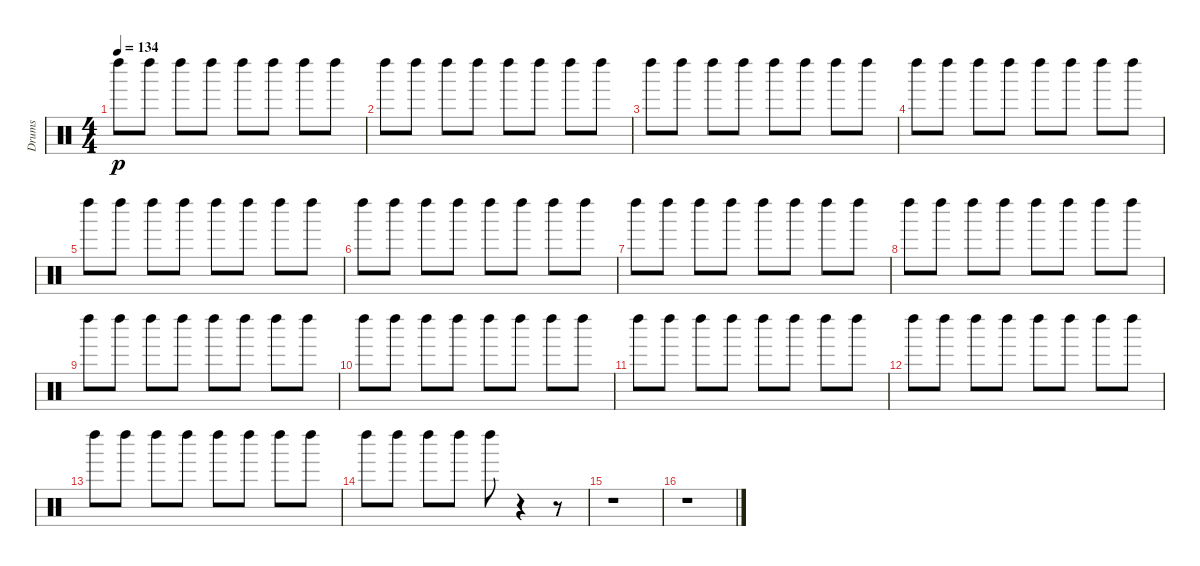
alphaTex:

\track ("Drums" "Drums") {instrument percussion}
\staff {score}
\articulation defaults
\ts (4 4)
\tempo 134
\clef neutral
\ks c "Left Maraca (hit)".8{dy p} "Left Maraca (hit)".8 "Left Maraca (hit)".8 "Left Maraca (hit)".8 "Left Maraca (hit)".8 "Left Maraca (hit)".8 "Left Maraca (hit)".8 "Left Maraca (hit)".8
|
"Left Maraca (hit)".8 "Left Maraca (hit)".8 "Left Maraca (hit)".8 "Left Maraca (hit)".8 "Left Maraca (hit)".8 "Left Maraca (hit)".8 "Left Maraca (hit)".8 "Left Maraca (hit)".8 |
"Left Maraca (hit)".8 "Left Maraca (hit)".8 "Left Maraca (hit)".8 "Left Maraca (hit)".8 "Left Maraca (hit)".8 "Left Maraca (hit)".8 "Left Maraca (hit)".8 "Left Maraca (hit)".8 |
"Left Maraca (hit)".8 "Left Maraca (hit)".8 "Left Maraca (hit)".8 "Left Maraca (hit)".8 "Left Maraca (hit)".8 "Left Maraca (hit)".8 "Left Maraca (hit)".8 "Left Maraca (hit)".8 |
"Left Maraca (hit)".8 "Left Maraca (hit)".8 "Left Maraca (hit)".8 "Left Maraca (hit)".8 "Left Maraca (hit)".8 "Left Maraca (hit)".8 "Left Maraca (hit)".8 "Left Maraca (hit)".8 |
"Left Maraca (hit)".8 "Left Maraca (hit)".8 "Left Maraca (hit)".8 "Left Maraca (hit)".8 "Left Maraca (hit)".8 "Left Maraca (hit)".8 "Left Maraca (hit)".8 "Left Maraca (hit)".8 |
"Left Maraca (hit)".8 "Left Maraca (hit)".8 "Left Maraca (hit)".8 "Left Maraca (hit)".8 "Left Maraca (hit)".8 "Left Maraca (hit)".8 "Left Maraca (hit)".8 "Left Maraca (hit)".8 |
"Left Maraca (hit)".8 "Left Maraca (hit)".8 "Left Maraca (hit)".8 "Left Maraca (hit)".8 "Left Maraca (hit)".8 "Left Maraca (hit)".8 "Left Maraca (hit)".8 "Left Maraca (hit)".8 |
"Left Maraca (hit)".8 "Left Maraca (hit)".8 "Left Maraca (hit)".8 "Left Maraca (hit)".8 "Left Maraca (hit)".8 "Left Maraca (hit)".8 "Left Maraca (hit)".8 "Left Maraca (hit)".8 |
"Left Maraca (hit)".8 "Left Maraca (hit)".8 "Left Maraca (hit)".8 "Left Maraca (hit)".8 "Left Maraca (hit)".8 "Left Maraca (hit)".8 "Left Maraca (hit)".8 "Left Maraca (hit)".8 |
"Left Maraca (hit)".8 "Left Maraca (hit)".8 "Left Maraca (hit)".8 "Left Maraca (hit)".8 "Left Maraca (hit)".8 "Left Maraca (hit)".8 "Left Maraca (hit)".8 "Left Maraca (hit)".8 |
"Left Maraca (hit)".8 "Left Maraca (hit)".8 "Left Maraca (hit)".8 "Left Maraca (hit)".8 "Left Maraca (hit)".8 "Left Maraca (hit)".8 "Left Maraca (hit)".8 "Left Maraca (hit)".8 |
"Left Maraca (hit)".8 "Left Maraca (hit)".8 "Left Maraca (hit)".8 "Left Maraca (hit)".8 "Left Maraca (hit)".8 "Left Maraca (hit)".8 "Left Maraca (hit)".8 "Left Maraca (hit)".8 |
"Left Maraca (hit)".8 "Left Maraca (hit)".8 "Left Maraca (hit)".8 "Left Maraca (hit)".8 "Left Maraca (hit)".8 r.4 r.8 |
r.1 |
r.1
